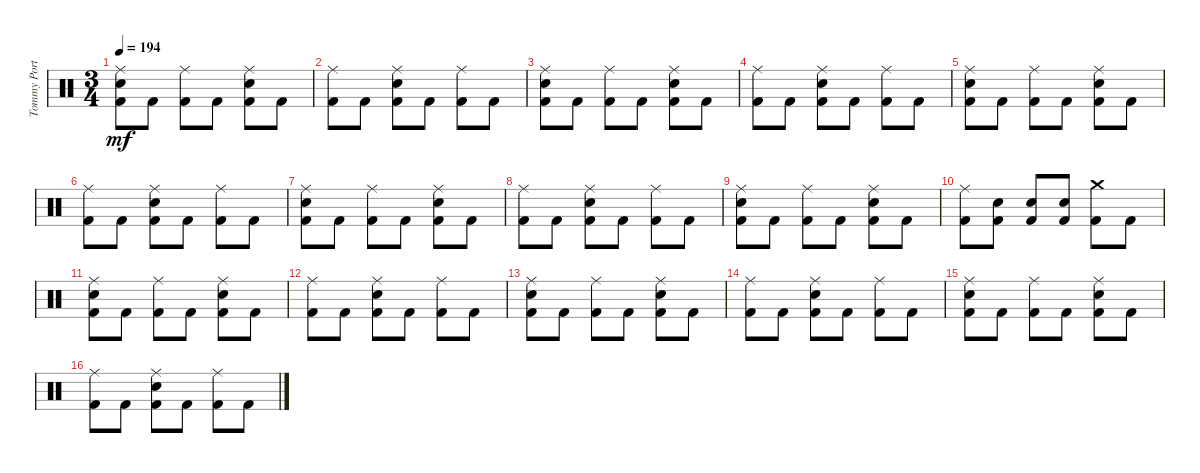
\track ("Tommy Portino" "Tommy Port") {instrument percussion}
\staff {score}
\articulation defaults
\ts (3 4)
\tempo 194
\clef neutral
\ks c
("Ride (middle)" "Snare (hit) 2" "Kick (hit) 2").8{dy mf} "Kick (hit) 2".8 ("Ride (middle)" "Kick (hit) 2").8 "Kick (hit) 2".8 ("Ride (middle)" "Snare (hit) 2" "Kick (hit) 2").8 "Kick (hit) 2".8 |
("Ride (middle)" "Kick (hit) 2").8 "Kick (hit) 2".8 ("Ride (middle)" "Snare (hit) 2" "Kick (hit) 2").8 "Kick (hit) 2".8 ("Ride (middle)" "Kick (hit) 2").8 "Kick (hit) 2".8 |
("Ride (middle)" "Snare (hit) 2" "Kick (hit) 2").8 "Kick (hit) 2".8 ("Ride (middle)" "Kick (hit) 2").8 "Kick (hit) 2".8 ("Ride (middle)" "Snare (hit) 2" "Kick (hit) 2").8 "Kick (hit) 2".8 |
("Ride (middle)" "Kick (hit) 2").8 "Kick (hit) 2".8 ("Ride (middle)" "Snare (hit) 2" "Kick (hit) 2").8 "Kick (hit) 2".8 ("Ride (middle)" "Kick (hit) 2").8 "Kick (hit) 2".8 |
("Ride (middle)" "Snare (hit) 2" "Kick (hit) 2").8 "Kick (hit) 2".8 ("Ride (middle)" "Kick (hit) 2").8 "Kick (hit) 2".8 ("Ride (middle)" "Snare (hit) 2" "Kick (hit) 2").8 "Kick (hit) 2".8 |
("Ride (middle)" "Kick (hit) 2").8 "Kick (hit) 2".8 ("Ride (middle)" "Snare (hit) 2" "Kick (hit) 2").8 "Kick (hit) 2".8 ("Ride (middle)" "Kick (hit) 2").8 "Kick (hit) 2".8 |
("Ride (middle)" "Snare (hit) 2" "Kick (hit) 2").8 "Kick (hit) 2".8 ("Ride (middle)" "Kick (hit) 2").8 "Kick (hit) 2".8 ("Ride (middle)" "Snare (hit) 2" "Kick (hit) 2").8 "Kick (hit) 2".8 |
("Ride (middle)" "Kick (hit) 2").8 "Kick (hit) 2".8 ("Ride (middle)" "Snare (hit) 2" "Kick (hit) 2").8 "Kick (hit) 2".8 ("Ride (middle)" "Kick (hit) 2").8 "Kick (hit) 2".8 |
("Ride (middle)" "Snare (hit) 2" "Kick (hit) 2").8 "Kick (hit) 2".8 ("Ride (middle)" "Kick (hit) 2").8 "Kick (hit) 2".8 ("Ride (middle)" "Snare (hit) 2" "Kick (hit) 2").8 "Kick (hit) 2".8 |
("Ride (middle)" "Kick (hit) 2").8 ("Snare (hit) 2" "Kick (hit) 2").8 ("Snare (hit) 2" "Kick (hit) 2").8 ("Snare (hit) 2" "Kick (hit) 2").8 ("Crash medium (hit)" "Kick (hit) 2").8 "Kick (hit) 2".8 |
("Snare (hit) 2" "Ride (middle)" "Kick (hit) 2").8 "Kick (hit) 2".8 ("Ride (middle)" "Kick (hit) 2").8 "Kick (hit) 2".8 ("Ride (middle)" "Snare (hit) 2" "Kick (hit) 2").8 "Kick (hit) 2".8 |
("Ride (middle)" "Kick (hit) 2").8 "Kick (hit) 2".8 ("Ride (middle)" "Snare (hit) 2" "Kick (hit) 2").8 "Kick (hit) 2".8 ("Ride (middle)" "Kick (hit) 2").8 "Kick (hit) 2".8 |
("Ride (middle)" "Snare (hit) 2" "Kick (hit) 2").8 "Kick (hit) 2".8 ("Ride (middle)" "Kick (hit) 2").8 "Kick (hit) 2".8 ("Ride (middle)" "Snare (hit) 2" "Kick (hit) 2").8 "Kick (hit) 2".8 |
("Ride (middle)" "Kick (hit) 2").8 "Kick (hit) 2".8 ("Ride (middle)" "Snare (hit) 2" "Kick (hit) 2").8 "Kick (hit) 2".8 ("Ride (middle)" "Kick (hit) 2").8 "Kick (hit) 2".8 |
("Ride (middle)" "Snare (hit) 2" "Kick (hit) 2").8 "Kick (hit) 2".8 ("Ride (middle)" "Kick (hit) 2").8 "Kick (hit) 2".8 ("Ride (middle)" "Snare (hit) 2" "Kick (hit) 2").8 "Kick (hit) 2".8 |
("Ride (middle)" "Kick (hit) 2").8 "Kick (hit) 2".8 ("Ride (middle)" "Snare (hit) 2" "Kick (hit) 2").8 "Kick (hit) 2".8 ("Ride (middle)" "Kick (hit) 2").8 "Kick (hit) 2".8
